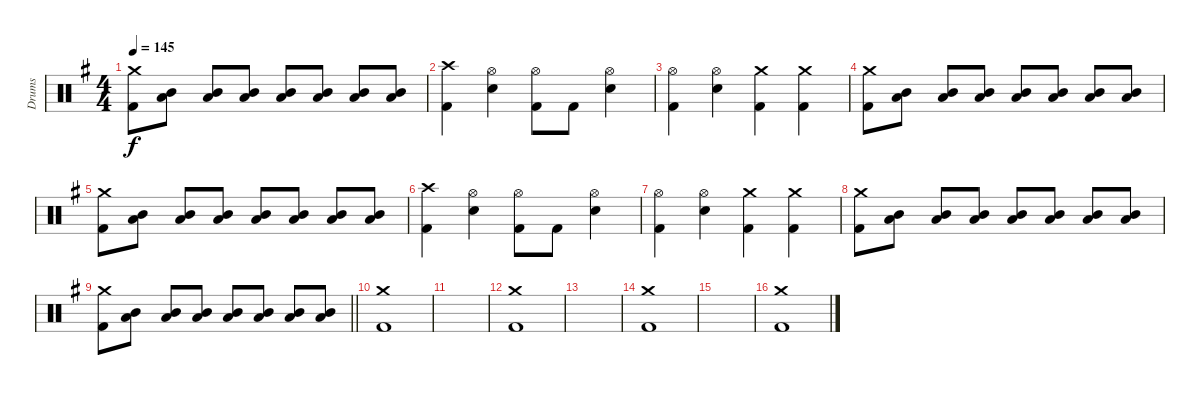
\track ("Drums" "Drums") {instrument percussion}
\staff {score}
\articulation defaults
\ts (4 4)
\tempo 145
\clef neutral
\ks eminor
("Crash medium (hit)" "Kick (hit) 2").8{dy f} ("Low Tom (hit)" "Mid Tom (hit)").8 ("Low Tom (hit)" "Mid Tom (hit)").8 ("Low Tom (hit)" "Mid Tom (hit)").8 ("Low Tom (hit)" "Mid Tom (hit)").8 ("Low Tom (hit)" "Mid Tom (hit)").8 ("Low Tom (hit)" "Mid Tom (hit)").8 ("Low Tom (hit)" "Mid Tom (hit)").8 |
("Crash high (hit)" "Kick (hit) 2").4 ("Hi-Hat (open)" "Electric Snare (hit)").4 ("Hi-Hat (open)" "Kick (hit) 2").8 "Kick (hit) 2".8 ("Hi-Hat (open)" "Electric Snare (hit)").4 |
("Hi-Hat (open)" "Kick (hit) 2").4 ("Electric Snare (hit)" "Hi-Hat (open)").4 ("Crash medium (hit)" "Kick (hit) 2").4 ("Crash medium (hit)" "Kick (hit) 2").4 |
("Crash medium (hit)" "Kick (hit) 2").8 ("Low Tom (hit)" "Mid Tom (hit)").8 ("Low Tom (hit)" "Mid Tom (hit)").8 ("Low Tom (hit)" "Mid Tom (hit)").8 ("Low Tom (hit)" "Mid Tom (hit)").8 ("Low Tom (hit)" "Mid Tom (hit)").8 ("Low Tom (hit)" "Mid Tom (hit)").8 ("Low Tom (hit)" "Mid Tom (hit)").8 |
("Crash medium (hit)" "Kick (hit) 2").8 ("Low Tom (hit)" "Mid Tom (hit)").8 ("Low Tom (hit)" "Mid Tom (hit)").8 ("Low Tom (hit)" "Mid Tom (hit)").8 ("Low Tom (hit)" "Mid Tom (hit)").8 ("Low Tom (hit)" "Mid Tom (hit)").8 ("Low Tom (hit)" "Mid Tom (hit)").8 ("Low Tom (hit)" "Mid Tom (hit)").8 |
("Crash high (hit)" "Kick (hit) 2").4 ("Hi-Hat (open)" "Electric Snare (hit)").4 ("Hi-Hat (open)" "Kick (hit) 2").8 "Kick (hit) 2".8 ("Hi-Hat (open)" "Electric Snare (hit)").4 |
("Hi-Hat (open)" "Kick (hit) 2").4 ("Electric Snare (hit)" "Hi-Hat (open)").4 ("Crash medium (hit)" "Kick (hit) 2").4 ("Crash medium (hit)" "Kick (hit) 2").4 |
("Crash medium (hit)" "Kick (hit) 2").8 ("Low Tom (hit)" "Mid Tom (hit)").8 ("Low Tom (hit)" "Mid Tom (hit)").8 ("Low Tom (hit)" "Mid Tom (hit)").8 ("Low Tom (hit)" "Mid Tom (hit)").8 ("Low Tom (hit)" "Mid Tom (hit)").8 ("Low Tom (hit)" "Mid Tom (hit)").8 ("Low Tom (hit)" "Mid Tom (hit)").8 |
\barLineRight lightlight
("Crash medium (hit)" "Kick (hit) 2").8 ("Low Tom (hit)" "Mid Tom (hit)").8 ("Low Tom (hit)" "Mid Tom (hit)").8 ("Low Tom (hit)" "Mid Tom (hit)").8 ("Low Tom (hit)" "Mid Tom (hit)").8 ("Low Tom (hit)" "Mid Tom (hit)").8 ("Low Tom (hit)" "Mid Tom (hit)").8 ("Low Tom (hit)" "Mid Tom (hit)").8 |
("Crash medium (hit)" "Kick (hit) 2").1 |
|
("Crash medium (hit)" "Kick (hit) 2").1 |
|
("Crash medium (hit)" "Kick (hit) 2").1 |
|
("Crash medium (hit)" "Kick (hit) 2").1
